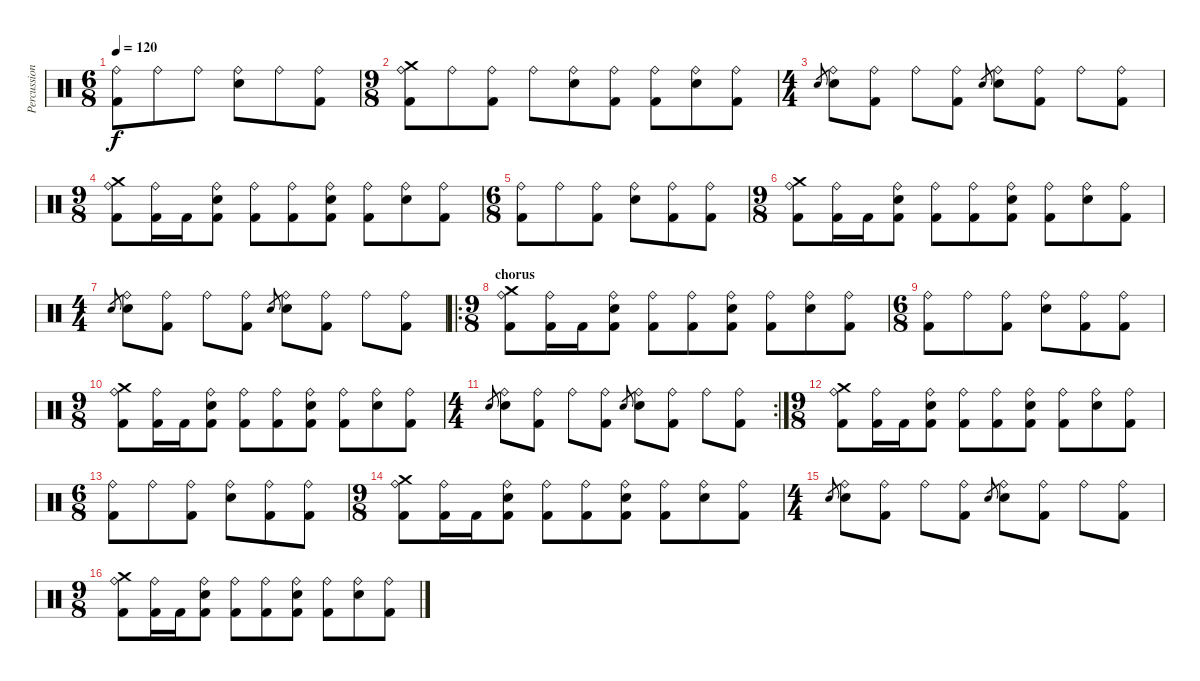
\track ("Percussion" "Percussion") {instrument percussion}
\staff {score}
\articulation defaults
\ts (6 8)
\tempo 120
\clef neutral
\ks c
("Ride (bell)" "Kick (hit) 2").8{dy f} "Ride (bell)".8 "Ride (bell)".8 ("Ride (bell)" "Electric Snare (hit)").8 "Ride (bell)".8 ("Ride (bell)" "Kick (hit) 2").8 |
\ts (9 8)
("Crash medium (hit)" "Ride (bell)" "Kick (hit) 2").8 "Ride (bell)".8 ("Ride (bell)" "Kick (hit) 2").8 "Ride (bell)".8 ("Ride (bell)" "Electric Snare (hit)").8 ("Ride (bell)" "Kick (hit) 2").8 ("Ride (bell)" "Kick (hit) 2").8 ("Ride (bell)" "Electric Snare (hit)").8 ("Ride (bell)" "Kick (hit) 2").8 |
\ts (4 4)
"Electric Snare (hit)".8{gr} ("Ride (bell)" "Electric Snare (hit)").8 ("Ride (bell)" "Kick (hit) 2").8 "Ride (bell)".8 ("Ride (bell)" "Kick (hit) 2").8 "Electric Snare (hit)".8{gr} ("Ride (bell)" "Electric Snare (hit)").8 ("Ride (bell)" "Kick (hit) 2").8 "Ride (bell)".8 ("Ride (bell)" "Kick (hit) 2").8 |
\ts (9 8)
("Crash medium (hit)" "Ride (bell)" "Kick (hit) 2").8 ("Ride (bell)" "Kick (hit) 2").16 "Kick (hit) 2".16 ("Ride (bell)" "Electric Snare (hit)" "Kick (hit) 2").8 ("Ride (bell)" "Kick (hit) 2").8 ("Ride (bell)" "Kick (hit) 2").8 ("Ride (bell)" "Electric Snare (hit)" "Kick (hit) 2").8 ("Ride (bell)" "Kick (hit) 2").8 ("Ride (bell)" "Electric Snare (hit)").8 ("Ride (bell)" "Kick (hit) 2").8 |
\ts (6 8)
("Ride (bell)" "Kick (hit) 2").8 "Ride (bell)".8 ("Ride (bell)" "Kick (hit) 2").8 ("Ride (bell)" "Electric Snare (hit)").8 ("Ride (bell)" "Kick (hit) 2").8 ("Ride (bell)" "Kick (hit) 2").8 |
\ts (9 8)
("Crash medium (hit)" "Ride (bell)" "Kick (hit) 2").8 ("Ride (bell)" "Kick (hit) 2").16 "Kick (hit) 2".16 ("Ride (bell)" "Electric Snare (hit)" "Kick (hit) 2").8 ("Ride (bell)" "Kick (hit) 2").8 ("Ride (bell)" "Kick (hit) 2").8 ("Ride (bell)" "Electric Snare (hit)" "Kick (hit) 2").8 ("Ride (bell)" "Kick (hit) 2").8 ("Ride (bell)" "Electric Snare (hit)").8 ("Ride (bell)" "Kick (hit) 2").8 |
\ts (4 4)
"Electric Snare (hit)".8{gr} ("Ride (bell)" "Electric Snare (hit)").8 ("Ride (bell)" "Kick (hit) 2").8 "Ride (bell)".8 ("Ride (bell)" "Kick (hit) 2").8 "Electric Snare (hit)".8{gr} ("Ride (bell)" "Electric Snare (hit)").8 ("Ride (bell)" "Kick (hit) 2").8 "Ride (bell)".8 ("Ride (bell)" "Kick (hit) 2").8 |
\ro
\ts (9 8)
\section ("" "chorus")
("Crash medium (hit)" "Ride (bell)" "Kick (hit) 2").8 ("Ride (bell)" "Kick (hit) 2").16 "Kick (hit) 2".16 ("Ride (bell)" "Electric Snare (hit)" "Kick (hit) 2").8 ("Ride (bell)" "Kick (hit) 2").8 ("Ride (bell)" "Kick (hit) 2").8 ("Ride (bell)" "Electric Snare (hit)" "Kick (hit) 2").8 ("Ride (bell)" "Kick (hit) 2").8 ("Ride (bell)" "Electric Snare (hit)").8 ("Ride (bell)" "Kick (hit) 2").8 |
\ts (6 8)
("Ride (bell)" "Kick (hit) 2").8 "Ride (bell)".8 ("Ride (bell)" "Kick (hit) 2").8 ("Ride (bell)" "Electric Snare (hit)").8 ("Ride (bell)" "Kick (hit) 2").8 ("Ride (bell)" "Kick (hit) 2").8 |
\ts (9 8)
("Crash medium (hit)" "Ride (bell)" "Kick (hit) 2").8 ("Ride (bell)" "Kick (hit) 2").16 "Kick (hit) 2".16 ("Ride (bell)" "Electric Snare (hit)" "Kick (hit) 2").8 ("Ride (bell)" "Kick (hit) 2").8 ("Ride (bell)" "Kick (hit) 2").8 ("Ride (bell)" "Electric Snare (hit)" "Kick (hit) 2").8 ("Ride (bell)" "Kick (hit) 2").8 ("Ride (bell)" "Electric Snare (hit)").8 ("Ride (bell)" "Kick (hit) 2").8 |
\rc 2
\ts (4 4)
"Electric Snare (hit)".8{gr} ("Ride (bell)" "Electric Snare (hit)").8 ("Ride (bell)" "Kick (hit) 2").8 "Ride (bell)".8 ("Ride (bell)" "Kick (hit) 2").8 "Electric Snare (hit)".8{gr} ("Ride (bell)" "Electric Snare (hit)").8 ("Ride (bell)" "Kick (hit) 2").8 "Ride (bell)".8 ("Ride (bell)" "Kick (hit) 2").8 |
\ts (9 8)
("Crash medium (hit)" "Ride (bell)" "Kick (hit) 2").8 ("Ride (bell)" "Kick (hit) 2").16 "Kick (hit) 2".16 ("Ride (bell)" "Electric Snare (hit)" "Kick (hit) 2").8 ("Ride (bell)" "Kick (hit) 2").8 ("Ride (bell)" "Kick (hit) 2").8 ("Ride (bell)" "Electric Snare (hit)" "Kick (hit) 2").8 ("Ride (bell)" "Kick (hit) 2").8 ("Ride (bell)" "Electric Snare (hit)").8 ("Ride (bell)" "Kick (hit) 2").8 |
\ts (6 8)
("Ride (bell)" "Kick (hit) 2").8 "Ride (bell)".8 ("Ride (bell)" "Kick (hit) 2").8 ("Ride (bell)" "Electric Snare (hit)").8 ("Ride (bell)" "Kick (hit) 2").8 ("Ride (bell)" "Kick (hit) 2").8 |
\ts (9 8)
("Crash medium (hit)" "Ride (bell)" "Kick (hit) 2").8 ("Ride (bell)" "Kick (hit) 2").16 "Kick (hit) 2".16 ("Ride (bell)" "Electric Snare (hit)" "Kick (hit) 2").8 ("Ride (bell)" "Kick (hit) 2").8 ("Ride (bell)" "Kick (hit) 2").8 ("Ride (bell)" "Electric Snare (hit)" "Kick (hit) 2").8 ("Ride (bell)" "Kick (hit) 2").8 ("Ride (bell)" "Electric Snare (hit)").8 ("Ride (bell)" "Kick (hit) 2").8 |
\ts (4 4)
"Electric Snare (hit)".8{gr} ("Ride (bell)" "Electric Snare (hit)").8 ("Ride (bell)" "Kick (hit) 2").8 "Ride (bell)".8 ("Ride (bell)" "Kick (hit) 2").8 "Electric Snare (hit)".8{gr} ("Ride (bell)" "Electric Snare (hit)").8 ("Ride (bell)" "Kick (hit) 2").8 "Ride (bell)".8 ("Ride (bell)" "Kick (hit) 2").8 |
\ts (9 8)
("Crash medium (hit)" "Ride (bell)" "Kick (hit) 2").8 ("Ride (bell)" "Kick (hit) 2").16 "Kick (hit) 2".16 ("Ride (bell)" "Electric Snare (hit)" "Kick (hit) 2").8 ("Ride (bell)" "Kick (hit) 2").8 ("Ride (bell)" "Kick (hit) 2").8 ("Ride (bell)" "Electric Snare (hit)" "Kick (hit) 2").8 ("Ride (bell)" "Kick (hit) 2").8 ("Ride (bell)" "Electric Snare (hit)").8 ("Ride (bell)" "Kick (hit) 2").8
